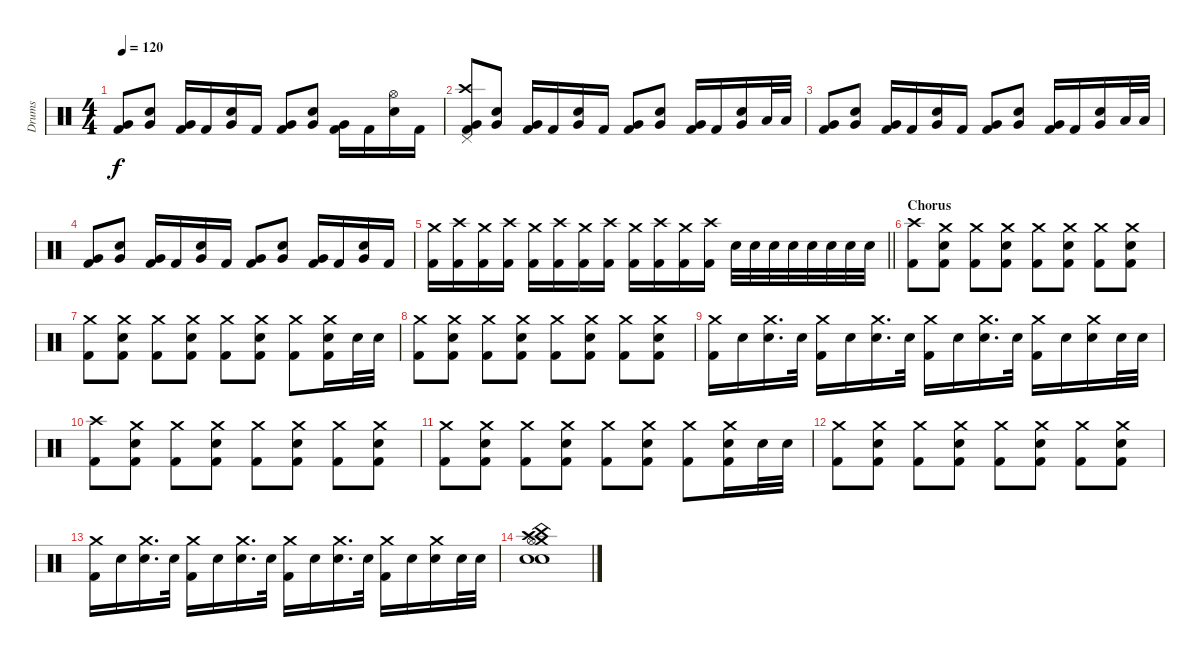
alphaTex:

\track ("Drums" "Drums") {instrument percussion}
\staff {score}
\articulation defaults
\ts (4 4)
\tempo 120
\clef neutral
\ks c
("Very Low Tom (hit)" "Kick (hit) 2").8{dy f} ("Snare (hit) 2" "Very Low Tom (hit)").8 ("Very Low Tom (hit)" "Kick (hit) 2").16 "Kick (hit) 2".16 ("Snare (hit) 2" "Very Low Tom (hit)").16 "Kick (hit) 2".16 ("Very Low Tom (hit)" "Kick (hit) 2").8 ("Snare (hit) 2" "Very Low Tom (hit)").8 ("Very Low Tom (hit)" "Kick (hit) 2").16 "Kick (hit) 2".16 ("Hi-Hat (open)" "Snare (hit) 2").16 "Kick (hit) 2".16 |
("Crash high (hit)" "Pedal Hi-Hat (hit)" "Very Low Tom (hit)" "Kick (hit) 2").8 ("Snare (hit) 2" "Very Low Tom (hit)").8 ("Very Low Tom (hit)" "Kick (hit) 2").16 "Kick (hit) 2".16 ("Snare (hit) 2" "Very Low Tom (hit)").16 "Kick (hit) 2".16 ("Very Low Tom (hit)" "Kick (hit) 2").8 ("Snare (hit) 2" "Very Low Tom (hit)").8 ("Very Low Tom (hit)" "Kick (hit) 2").16 "Kick (hit) 2".16 ("Snare (hit) 2" "Very Low Tom (hit)").16 "Low Tom (hit)".32 "Low Tom (hit)".32 |
("Very Low Tom (hit)" "Kick (hit) 2").8 ("Snare (hit) 2" "Very Low Tom (hit)").8 ("Very Low Tom (hit)" "Kick (hit) 2").16 "Kick (hit) 2".16 ("Snare (hit) 2" "Very Low Tom (hit)").16 "Kick (hit) 2".16 ("Very Low Tom (hit)" "Kick (hit) 2").8 ("Snare (hit) 2" "Very Low Tom (hit)").8 ("Very Low Tom (hit)" "Kick (hit) 2").16 "Kick (hit) 2".16 ("Snare (hit) 2" "Very Low Tom (hit)").16 "Low Tom (hit)".32 "Low Tom (hit)".32 |
("Very Low Tom (hit)" "Kick (hit) 2").8 ("Snare (hit) 2" "Very Low Tom (hit)").8 ("Very Low Tom (hit)" "Kick (hit) 2").16 "Kick (hit) 2".16 ("Snare (hit) 2" "Very Low Tom (hit)").16 "Kick (hit) 2".16 ("Very Low Tom (hit)" "Kick (hit) 2").8 ("Snare (hit) 2" "Very Low Tom (hit)").8 ("Very Low Tom (hit)" "Kick (hit) 2").16 "Kick (hit) 2".16 ("Snare (hit) 2" "Very Low Tom (hit)").16 "Kick (hit) 2".16 |
\barLineRight lightlight
("Crash medium (hit)" "Kick (hit) 2").16 ("Crash high (hit)" "Kick (hit) 2").16 ("Crash medium (hit)" "Kick (hit) 2").16 ("Crash high (hit)" "Kick (hit) 2").16 ("Crash medium (hit)" "Kick (hit) 2").16 ("Crash high (hit)" "Kick (hit) 2").16 ("Crash medium (hit)" "Kick (hit) 2").16 ("Crash high (hit)" "Kick (hit) 2").16 ("Crash medium (hit)" "Kick (hit) 2").16 ("Crash high (hit)" "Kick (hit) 2").16 ("Crash medium (hit)" "Kick (hit) 2").16 ("Crash high (hit)" "Kick (hit) 2").16 "Snare (hit) 2".32 "Snare (hit) 2".32 "Snare (hit) 2".32 "Snare (hit) 2".32 "Snare (hit) 2".32 "Snare (hit) 2".32 "Snare (hit) 2".32 "Snare (hit) 2".32 |
\section ("" "Chorus")
("Crash high (hit)" "Kick (hit) 2").8 ("Crash medium (hit)" "Snare (hit) 2" "Kick (hit) 2").8 ("Crash medium (hit)" "Kick (hit) 2").8 ("Crash medium (hit)" "Snare (hit) 2" "Kick (hit) 2").8 ("Crash medium (hit)" "Kick (hit) 2").8 ("Crash medium (hit)" "Snare (hit) 2" "Kick (hit) 2").8 ("Crash medium (hit)" "Kick (hit) 2").8 ("Crash medium (hit)" "Snare (hit) 2" "Kick (hit) 2").8 |
("Crash medium (hit)" "Kick (hit) 2").8 ("Crash medium (hit)" "Snare (hit) 2" "Kick (hit) 2").8 ("Crash medium (hit)" "Kick (hit) 2").8 ("Crash medium (hit)" "Snare (hit) 2" "Kick (hit) 2").8 ("Crash medium (hit)" "Kick (hit) 2").8 ("Crash medium (hit)" "Snare (hit) 2" "Kick (hit) 2").8 ("Crash medium (hit)" "Kick (hit) 2").8 ("Crash medium (hit)" "Snare (hit) 2" "Kick (hit) 2").16 "Snare (hit) 2".32 "Snare (hit) 2".32 |
("Crash medium (hit)" "Kick (hit) 2").8 ("Crash medium (hit)" "Snare (hit) 2" "Kick (hit) 2").8 ("Crash medium (hit)" "Kick (hit) 2").8 ("Crash medium (hit)" "Snare (hit) 2" "Kick (hit) 2").8 ("Crash medium (hit)" "Kick (hit) 2").8 ("Crash medium (hit)" "Snare (hit) 2" "Kick (hit) 2").8 ("Crash medium (hit)" "Kick (hit) 2").8 ("Crash medium (hit)" "Snare (hit) 2" "Kick (hit) 2").8 |
("Crash medium (hit)" "Kick (hit) 2").16 "Snare (hit) 2".16 ("Crash medium (hit)" "Snare (hit) 2").16{d} "Snare (hit) 2".32 ("Crash medium (hit)" "Kick (hit) 2").16 "Snare (hit) 2".16 ("Crash medium (hit)" "Snare (hit) 2").16{d} "Snare (hit) 2".32 ("Crash medium (hit)" "Kick (hit) 2").16 "Snare (hit) 2".16 ("Crash medium (hit)" "Snare (hit) 2").16{d} "Snare (hit) 2".32 ("Crash medium (hit)" "Kick (hit) 2").16 "Snare (hit) 2".16 ("Crash medium (hit)" "Snare (hit) 2").16 "Snare (hit) 2".32 "Snare (hit) 2".32 |
("Crash high (hit)" "Kick (hit) 2").8 ("Crash medium (hit)" "Snare (hit) 2" "Kick (hit) 2").8 ("Crash medium (hit)" "Kick (hit) 2").8 ("Crash medium (hit)" "Snare (hit) 2" "Kick (hit) 2").8 ("Crash medium (hit)" "Kick (hit) 2").8 ("Crash medium (hit)" "Snare (hit) 2" "Kick (hit) 2").8 ("Crash medium (hit)" "Kick (hit) 2").8 ("Crash medium (hit)" "Snare (hit) 2" "Kick (hit) 2").8 |
("Crash medium (hit)" "Kick (hit) 2").8 ("Crash medium (hit)" "Snare (hit) 2" "Kick (hit) 2").8 ("Crash medium (hit)" "Kick (hit) 2").8 ("Crash medium (hit)" "Snare (hit) 2" "Kick (hit) 2").8 ("Crash medium (hit)" "Kick (hit) 2").8 ("Crash medium (hit)" "Snare (hit) 2" "Kick (hit) 2").8 ("Crash medium (hit)" "Kick (hit) 2").8 ("Crash medium (hit)" "Snare (hit) 2" "Kick (hit) 2").16 "Snare (hit) 2".32 "Snare (hit) 2".32 |
("Crash medium (hit)" "Kick (hit) 2").8 ("Crash medium (hit)" "Snare (hit) 2" "Kick (hit) 2").8 ("Crash medium (hit)" "Kick (hit) 2").8 ("Crash medium (hit)" "Snare (hit) 2" "Kick (hit) 2").8 ("Crash medium (hit)" "Kick (hit) 2").8 ("Crash medium (hit)" "Snare (hit) 2" "Kick (hit) 2").8 ("Crash medium (hit)" "Kick (hit) 2").8 ("Crash medium (hit)" "Snare (hit) 2" "Kick (hit) 2").8 |
("Crash medium (hit)" "Kick (hit) 2").16 "Snare (hit) 2".16 ("Crash medium (hit)" "Snare (hit) 2").16{d} "Snare (hit) 2".32 ("Crash medium (hit)" "Kick (hit) 2").16 "Snare (hit) 2".16 ("Crash medium (hit)" "Snare (hit) 2").16{d} "Snare (hit) 2".32 ("Crash medium (hit)" "Kick (hit) 2").16 "Snare (hit) 2".16 ("Crash medium (hit)" "Snare (hit) 2").16{d} "Snare (hit) 2".32 ("Crash medium (hit)" "Kick (hit) 2").16 "Snare (hit) 2".16 ("Crash medium (hit)" "Snare (hit) 2").16 "Snare (hit) 2".32 "Snare (hit) 2".32 |
("Crash medium (hit)" "Crash high (hit)" "China (hit)" "Hi-Hat (open)" "Snare (hit) 2" "Electric Snare (hit)").1
